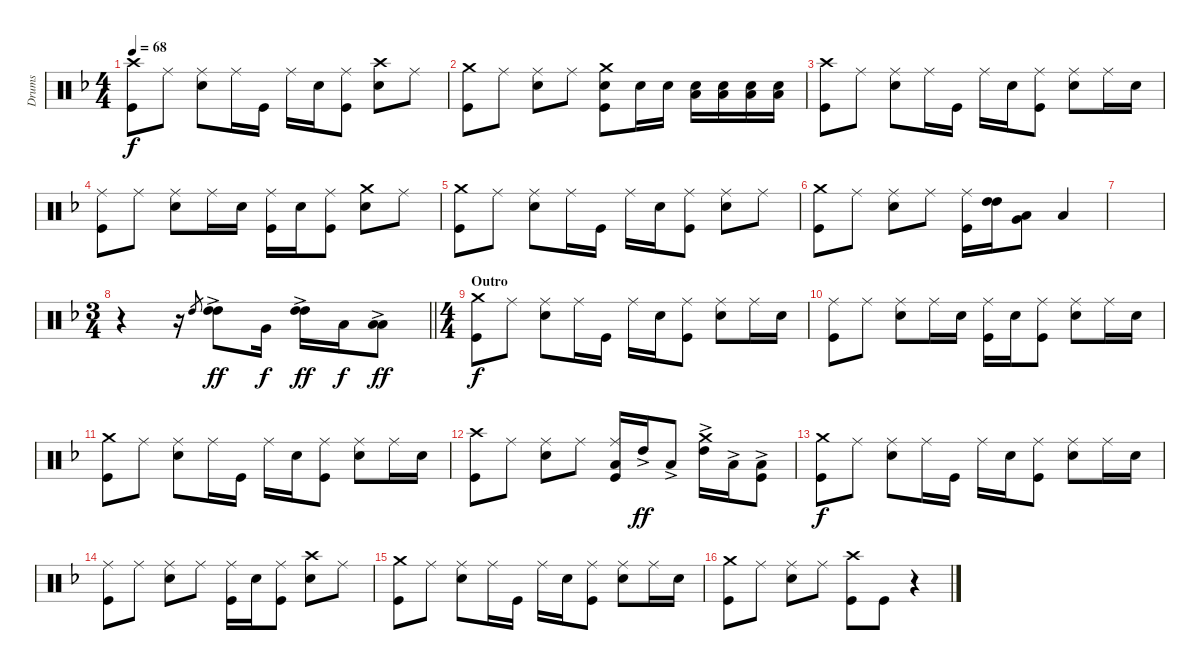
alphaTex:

\track ("Drums" "Drums") {instrument percussion}
\staff {score}
\articulation defaults
\ts (4 4)
\tempo 68
\clef neutral
\ks f
("Crash high (hit)" "Kick (hit)").8{dy f} "Ride (middle)".8 ("Ride (middle)" "Snare (hit) 2").8 "Ride (middle)".16 "Kick (hit)".16 "Ride (middle)".16 "Snare (hit) 2".16 ("Ride (middle)" "Kick (hit)").8 ("Crash high (hit)" "Snare (hit) 2").8 "Ride (middle)".8 |
("Crash medium (hit)" "Kick (hit)").8 "Ride (middle)".8 ("Ride (middle)" "Snare (hit) 2").8 "Ride (middle)".8 ("Crash medium (hit)" "Snare (hit) 2" "Kick (hit)").8 "Snare (hit) 2".16 "Snare (hit) 2".16 ("Snare (hit) 2" "Low Tom (hit)").16 ("Snare (hit) 2" "Low Tom (hit)").16 ("Snare (hit) 2" "Low Tom (hit)").16 ("Snare (hit) 2" "Low Tom (hit)").16 |
("Crash high (hit)" "Kick (hit)").8 "Ride (middle)".8 ("Ride (middle)" "Snare (hit) 2").8 "Ride (middle)".16 "Kick (hit)".16 "Ride (middle)".16 "Snare (hit) 2".16 ("Ride (middle)" "Kick (hit)").8 ("Ride (middle)" "Snare (hit) 2").8 "Ride (middle)".16 "Snare (hit) 2".16 |
("Ride (middle)" "Kick (hit)").8 "Ride (middle)".8 ("Ride (middle)" "Snare (hit) 2").8 "Ride (middle)".16 "Snare (hit) 2".16 ("Ride (middle)" "Kick (hit)").16 "Snare (hit) 2".16 ("Ride (middle)" "Kick (hit)").8 ("Crash medium (hit)" "Snare (hit) 2").8 "Ride (middle)".8 |
("Crash medium (hit)" "Kick (hit)").8 "Ride (middle)".8 ("Ride (middle)" "Snare (hit) 2").8 "Ride (middle)".16 "Kick (hit)".16 "Ride (middle)".16 "Snare (hit) 2".16 ("Ride (middle)" "Kick (hit)").8 ("Ride (middle)" "Snare (hit) 2").8 "Ride (middle)".8 |
("Crash medium (hit)" "Kick (hit)").8 "Ride (middle)".8 ("Ride (middle)" "Snare (hit) 2").8 "Ride (middle)".8 ("Ride (middle)" "Kick (hit)").16 ("High Tom (hit)" "High Tom (hit)").16 ("Low Tom (hit)" "Very Low Tom (hit)").8 "Low Floor Tom (hit)".4 |
|
\ts (3 4)
\barLineRight lightlight
r.4 r.16 "High Tom (hit)".8{gr} ("High Tom (hit)"{ac} "High Tom (hit)"{ac}).8{dy ff} "Very Low Tom (hit)".16{dy f} ("High Tom (hit)"{ac} "High Tom (hit)"{ac}).16{dy ff} "Low Floor Tom (hit)".16{dy f} ("Low Tom (hit)"{ac} "Low Tom (hit)"{ac}).8{dy ff} |
\ts (4 4)
\section ("" "Outro")
("Crash medium (hit)" "Kick (hit)").8{dy f} "Ride (middle)".8 ("Ride (middle)" "Snare (hit) 2").8 "Ride (middle)".16 "Kick (hit)".16 "Ride (middle)".16 "Snare (hit) 2".16 ("Ride (middle)" "Kick (hit)").8 ("Ride (middle)" "Snare (hit) 2").8 "Ride (middle)".16 "Snare (hit) 2".16 |
("Ride (middle)" "Kick (hit)").8 "Ride (middle)".8 ("Ride (middle)" "Snare (hit) 2").8 "Ride (middle)".16 "Snare (hit) 2".16 ("Ride (middle)" "Kick (hit)").16 "Snare (hit) 2".16 ("Ride (middle)" "Kick (hit)").8 ("Ride (middle)" "Snare (hit) 2").8 "Ride (middle)".16 "Snare (hit) 2".16 |
("Crash medium (hit)" "Kick (hit)").8 "Ride (middle)".8 ("Ride (middle)" "Snare (hit) 2").8 "Ride (middle)".16 "Kick (hit)".16 "Ride (middle)".16 "Snare (hit) 2".16 ("Ride (middle)" "Kick (hit)").8 ("Ride (middle)" "Snare (hit) 2").8 "Ride (middle)".16 "Snare (hit) 2".16 |
("Crash high (hit)" "Kick (hit)").8 "Ride (middle)".8 ("Ride (middle)" "Snare (hit) 2").8 "Ride (middle)".8 ("Ride (middle)" "Low Floor Tom (hit)" "Kick (hit)").16 "High Tom (hit)"{ac}.16{dy ff} "Low Tom (hit)"{ac}.8 ("Crash medium (hit)" "High Tom (hit)"{ac}).16 "Low Tom (hit)"{ac}.16 ("Low Floor Tom (hit)"{ac} "Kick (hit)").8 |
("Crash medium (hit)" "Kick (hit)").8{dy f} "Ride (middle)".8 ("Ride (middle)" "Snare (hit) 2").8 "Ride (middle)".16 "Kick (hit)".16 "Ride (middle)".16 "Snare (hit) 2".16 ("Ride (middle)" "Kick (hit)").8 ("Ride (middle)" "Snare (hit) 2").8 "Ride (middle)".16 "Snare (hit) 2".16 |
("Ride (middle)" "Kick (hit)").8 "Ride (middle)".8 ("Ride (middle)" "Snare (hit) 2").8 "Ride (middle)".8 ("Ride (middle)" "Kick (hit)").16 "Snare (hit) 2".16 ("Ride (middle)" "Kick (hit)").8 ("Crash high (hit)" "Snare (hit) 2").8 "Ride (middle)".8 |
("Crash medium (hit)" "Kick (hit)").8 "Ride (middle)".8 ("Ride (middle)" "Snare (hit) 2").8 "Ride (middle)".16 "Kick (hit)".16 "Ride (middle)".16 "Snare (hit) 2".16 ("Ride (middle)" "Kick (hit)").8 ("Ride (middle)" "Snare (hit) 2").8 "Ride (middle)".16 "Snare (hit) 2".16 |
("Crash medium (hit)" "Kick (hit)").8 "Ride (middle)".8 ("Ride (middle)" "Snare (hit) 2").8 "Ride (middle)".8 ("Crash high (hit)" "Kick (hit)").8 "Kick (hit)".8 r.4
